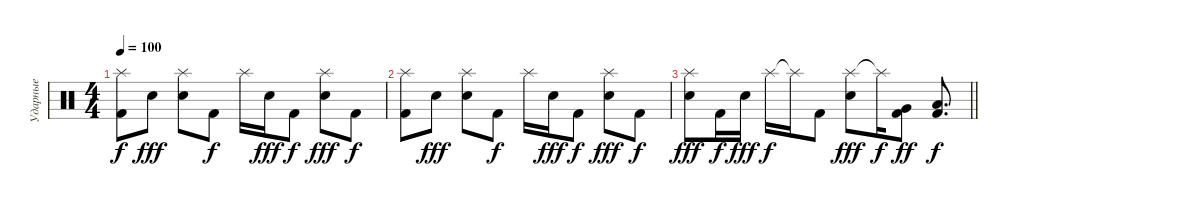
\track ("Ударные" "Ударные") {instrument percussion}
\staff {score}
\articulation defaults
\ts (4 4)
\tempo 100
\clef neutral
\ks c
("Splash (hit)" "Kick (hit) 2").8{dy f} "Electric Snare (hit)".8{dy fff} ("Splash (hit)" "Electric Snare (hit)").8 "Kick (hit) 2".8{dy f} "Splash (hit)".16 "Electric Snare (hit)".16{dy fff} "Kick (hit) 2".8{dy f} ("Splash (hit)" "Electric Snare (hit)").8{dy fff} "Kick (hit) 2".8{dy f} |
("Splash (hit)" "Kick (hit) 2").8 "Electric Snare (hit)".8{dy fff} ("Splash (hit)" "Electric Snare (hit)").8 "Kick (hit) 2".8{dy f} "Splash (hit)".16 "Electric Snare (hit)".16{dy fff} "Kick (hit) 2".8{dy f} ("Splash (hit)" "Electric Snare (hit)").8{dy fff} "Kick (hit) 2".8{dy f} |
\barLineRight lightlight
("Splash (hit)" "Electric Snare (hit)").8{dy fff} "Kick (hit) 2".16{dy f} "Electric Snare (hit)".16{dy fff} "Splash (hit)".16{dy f} "Splash (hit)"{t}.16 "Kick (hit) 2".8 ("Splash (hit)" "Electric Snare (hit)").8{dy fff} "Splash (hit)"{t}.16{dy f} ("Very Low Tom (hit)" "Kick (hit) 2").8{dy ff} ("Low Tom (hit)" "Kick (hit) 2").8{d dy f}
